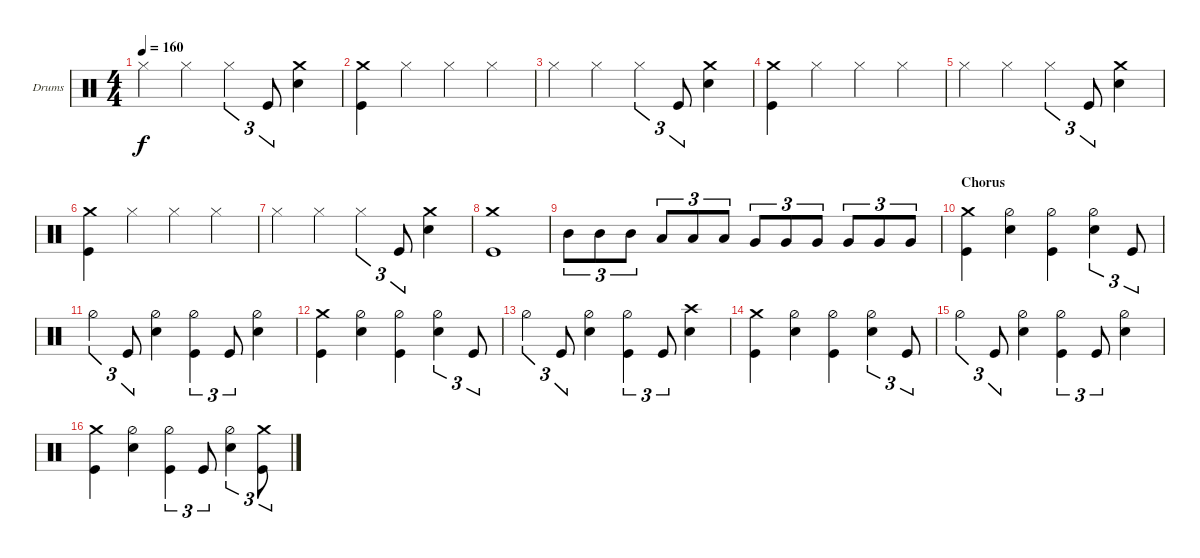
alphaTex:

\bracketExtendMode groupsimilarinstruments
\firstSystemTrackNameOrientation horizontal
\otherSystemsTrackNameOrientation horizontal
\track ("Drumkit" "Drums") {instrument percussion}
\staff {score}
\articulation defaults
\ts (4 4)
\tempo 160
\clef neutral
\ks c "Hi-Hat (closed)".4{dy f} "Hi-Hat (closed)".4 "Hi-Hat (closed)".4{tu (3 2)} "Kick (hit)".8{tu (3 2)}
("Crash medium (hit)" "Snare (hit) 2").4 |
("Crash medium (hit)" "Kick (hit)").4 "Hi-Hat (closed)".4 "Hi-Hat (closed)".4 "Hi-Hat (closed)".4 |
"Hi-Hat (closed)".4 "Hi-Hat (closed)".4 "Hi-Hat (closed)".4{tu (3 2)} "Kick (hit)".8{tu (3 2)} ("Crash medium (hit)" "Snare (hit) 2").4 |
("Crash medium (hit)" "Kick (hit)").4 "Hi-Hat (closed)".4 "Hi-Hat (closed)".4 "Hi-Hat (closed)".4 |
"Hi-Hat (closed)".4 "Hi-Hat (closed)".4 "Hi-Hat (closed)".4{tu (3 2)} "Kick (hit)".8{tu (3 2)} ("Crash medium (hit)" "Snare (hit) 2").4 |
("Crash medium (hit)" "Kick (hit)").4 "Hi-Hat (closed)".4 "Hi-Hat (closed)".4 "Hi-Hat (closed)".4 |
"Hi-Hat (closed)".4 "Hi-Hat (closed)".4 "Hi-Hat (closed)".4{tu (3 2)} "Kick (hit)".8{tu (3 2)} ("Crash medium (hit)" "Snare (hit) 2").4 |
("Crash medium (hit)" "Kick (hit)").1 |
"Mid Tom (hit)".8{tu (3 2)} "Mid Tom (hit)".8{tu (3 2)} "Mid Tom (hit)".8{tu (3 2)} "Low Tom (hit)".8{tu (3 2)} "Low Tom (hit)".8{tu (3 2)} "Low Tom (hit)".8{tu (3 2)} "Very Low Tom (hit)".8{tu (3 2)} "Very Low Tom (hit)".8{tu (3 2)} "Very Low Tom (hit)".8{tu (3 2)} "Very Low Tom (hit)".8{tu (3 2)} "Very Low Tom (hit)".8{tu (3 2)} "Very Low Tom (hit)".8{tu (3 2)} |
\section ("" "Chorus")
("Kick (hit)" "Crash medium (hit)").4 ("Snare (hit) 2" "Hi-Hat (half)").4 ("Kick (hit)" "Hi-Hat (half)").4 ("Snare (hit) 2" "Hi-Hat (half)").4{tu (3 2)} "Kick (hit)".8{tu (3 2)} |
"Hi-Hat (half)".4{tu (3 2)} "Kick (hit)".8{tu (3 2)} ("Snare (hit) 2" "Hi-Hat (half)").4 ("Kick (hit)" "Hi-Hat (half)").4{tu (3 2)} "Kick (hit)".8{tu (3 2)} ("Snare (hit) 2" "Hi-Hat (half)").4 |
("Kick (hit)" "Crash medium (hit)").4 ("Snare (hit) 2" "Hi-Hat (half)").4 ("Kick (hit)" "Hi-Hat (half)").4 ("Snare (hit) 2" "Hi-Hat (half)").4{tu (3 2)} "Kick (hit)".8{tu (3 2)} |
"Hi-Hat (half)".4{tu (3 2)} "Kick (hit)".8{tu (3 2)} ("Snare (hit) 2" "Hi-Hat (half)").4 ("Kick (hit)" "Hi-Hat (half)").4{tu (3 2)} "Kick (hit)".8{tu (3 2)} ("Snare (hit) 2" "Crash high (hit)").4 |
("Kick (hit)" "Crash medium (hit)").4 ("Snare (hit) 2" "Hi-Hat (half)").4 ("Kick (hit)" "Hi-Hat (half)").4 ("Snare (hit) 2" "Hi-Hat (half)").4{tu (3 2)} "Kick (hit)".8{tu (3 2)} |
"Hi-Hat (half)".4{tu (3 2)} "Kick (hit)".8{tu (3 2)} ("Snare (hit) 2" "Hi-Hat (half)").4 ("Kick (hit)" "Hi-Hat (half)").4{tu (3 2)} "Kick (hit)".8{tu (3 2)} ("Snare (hit) 2" "Hi-Hat (half)").4 |
("Kick (hit)" "Crash medium (hit)").4 ("Snare (hit) 2" "Hi-Hat (half)").4 ("Kick (hit)" "Hi-Hat (half)").4{tu (3 2)} "Kick (hit)".8{tu (3 2)} ("Snare (hit) 2" "Hi-Hat (half)").4{tu (3 2)} ("Kick (hit)" "Crash medium (hit)").8{tu (3 2)}
